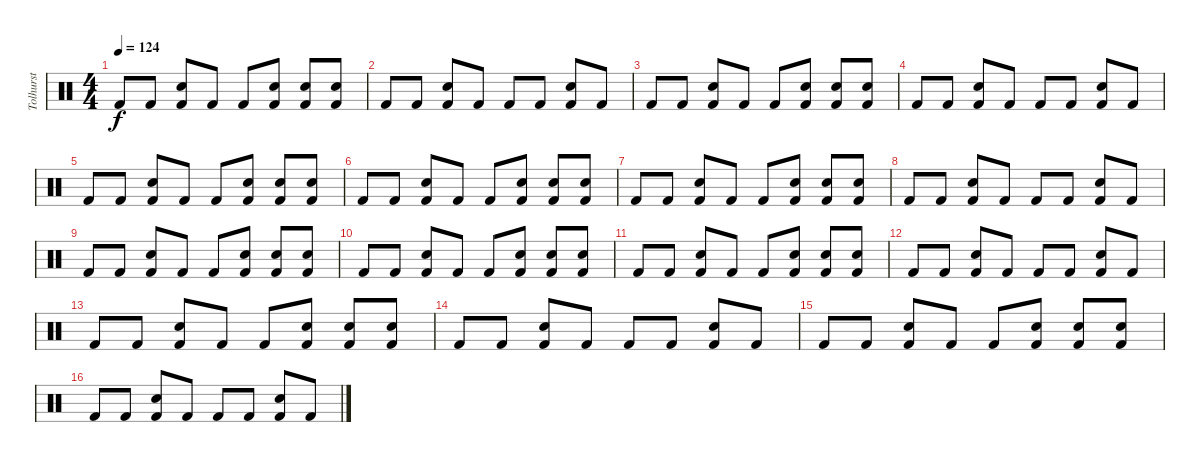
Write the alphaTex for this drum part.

\track ("Tolhurst" "Tolhurst") {instrument percussion}
\staff {score}
\articulation defaults
\ts (4 4)
\tempo 124
\clef neutral
\ks c "Kick (hit) 2".8{dy f} "Kick (hit) 2".8
("Kick (hit) 2" "Snare (hit) 2").8 "Kick (hit) 2".8 "Kick (hit) 2".8 ("Kick (hit) 2" "Snare (hit) 2").8 ("Kick (hit) 2" "Snare (hit) 2").8 ("Kick (hit) 2" "Snare (hit) 2").8 |
"Kick (hit) 2".8 "Kick (hit) 2".8 ("Kick (hit) 2" "Snare (hit) 2").8 "Kick (hit) 2".8 "Kick (hit) 2".8 "Kick (hit) 2".8 ("Kick (hit) 2" "Snare (hit) 2").8 "Kick (hit) 2".8 |
"Kick (hit) 2".8 "Kick (hit) 2".8 ("Kick (hit) 2" "Snare (hit) 2").8 "Kick (hit) 2".8 "Kick (hit) 2".8 ("Kick (hit) 2" "Snare (hit) 2").8 ("Kick (hit) 2" "Snare (hit) 2").8 ("Kick (hit) 2" "Snare (hit) 2").8 |
"Kick (hit) 2".8 "Kick (hit) 2".8 ("Kick (hit) 2" "Snare (hit) 2").8 "Kick (hit) 2".8 "Kick (hit) 2".8 "Kick (hit) 2".8 ("Kick (hit) 2" "Snare (hit) 2").8 "Kick (hit) 2".8 |
"Kick (hit) 2".8 "Kick (hit) 2".8 ("Kick (hit) 2" "Snare (hit) 2").8 "Kick (hit) 2".8 "Kick (hit) 2".8 ("Kick (hit) 2" "Snare (hit) 2").8 ("Kick (hit) 2" "Snare (hit) 2").8 ("Kick (hit) 2" "Snare (hit) 2").8 |
"Kick (hit) 2".8 "Kick (hit) 2".8 ("Kick (hit) 2" "Snare (hit) 2").8 "Kick (hit) 2".8 "Kick (hit) 2".8 ("Kick (hit) 2" "Snare (hit) 2").8 ("Kick (hit) 2" "Snare (hit) 2").8 ("Kick (hit) 2" "Snare (hit) 2").8 |
"Kick (hit) 2".8 "Kick (hit) 2".8 ("Kick (hit) 2" "Snare (hit) 2").8 "Kick (hit) 2".8 "Kick (hit) 2".8 ("Kick (hit) 2" "Snare (hit) 2").8 ("Kick (hit) 2" "Snare (hit) 2").8 ("Kick (hit) 2" "Snare (hit) 2").8 |
"Kick (hit) 2".8 "Kick (hit) 2".8 ("Kick (hit) 2" "Snare (hit) 2").8 "Kick (hit) 2".8 "Kick (hit) 2".8 "Kick (hit) 2".8 ("Kick (hit) 2" "Snare (hit) 2").8 "Kick (hit) 2".8 |
"Kick (hit) 2".8 "Kick (hit) 2".8 ("Kick (hit) 2" "Snare (hit) 2").8 "Kick (hit) 2".8 "Kick (hit) 2".8 ("Kick (hit) 2" "Snare (hit) 2").8 ("Kick (hit) 2" "Snare (hit) 2").8 ("Kick (hit) 2" "Snare (hit) 2").8 |
"Kick (hit) 2".8 "Kick (hit) 2".8 ("Kick (hit) 2" "Snare (hit) 2").8 "Kick (hit) 2".8 "Kick (hit) 2".8 ("Kick (hit) 2" "Snare (hit) 2").8 ("Kick (hit) 2" "Snare (hit) 2").8 ("Kick (hit) 2" "Snare (hit) 2").8 |
"Kick (hit) 2".8 "Kick (hit) 2".8 ("Kick (hit) 2" "Snare (hit) 2").8 "Kick (hit) 2".8 "Kick (hit) 2".8 ("Kick (hit) 2" "Snare (hit) 2").8 ("Kick (hit) 2" "Snare (hit) 2").8 ("Kick (hit) 2" "Snare (hit) 2").8 |
"Kick (hit) 2".8 "Kick (hit) 2".8 ("Kick (hit) 2" "Snare (hit) 2").8 "Kick (hit) 2".8 "Kick (hit) 2".8 "Kick (hit) 2".8 ("Kick (hit) 2" "Snare (hit) 2").8 "Kick (hit) 2".8 |
"Kick (hit) 2".8 "Kick (hit) 2".8 ("Kick (hit) 2" "Snare (hit) 2").8 "Kick (hit) 2".8 "Kick (hit) 2".8 ("Kick (hit) 2" "Snare (hit) 2").8 ("Kick (hit) 2" "Snare (hit) 2").8 ("Kick (hit) 2" "Snare (hit) 2").8 |
"Kick (hit) 2".8 "Kick (hit) 2".8 ("Kick (hit) 2" "Snare (hit) 2").8 "Kick (hit) 2".8 "Kick (hit) 2".8 "Kick (hit) 2".8 ("Kick (hit) 2" "Snare (hit) 2").8 "Kick (hit) 2".8 |
"Kick (hit) 2".8 "Kick (hit) 2".8 ("Kick (hit) 2" "Snare (hit) 2").8 "Kick (hit) 2".8 "Kick (hit) 2".8 ("Kick (hit) 2" "Snare (hit) 2").8 ("Kick (hit) 2" "Snare (hit) 2").8 ("Kick (hit) 2" "Snare (hit) 2").8 |
"Kick (hit) 2".8 "Kick (hit) 2".8 ("Kick (hit) 2" "Snare (hit) 2").8 "Kick (hit) 2".8 "Kick (hit) 2".8 "Kick (hit) 2".8 ("Kick (hit) 2" "Snare (hit) 2").8 "Kick (hit) 2".8
